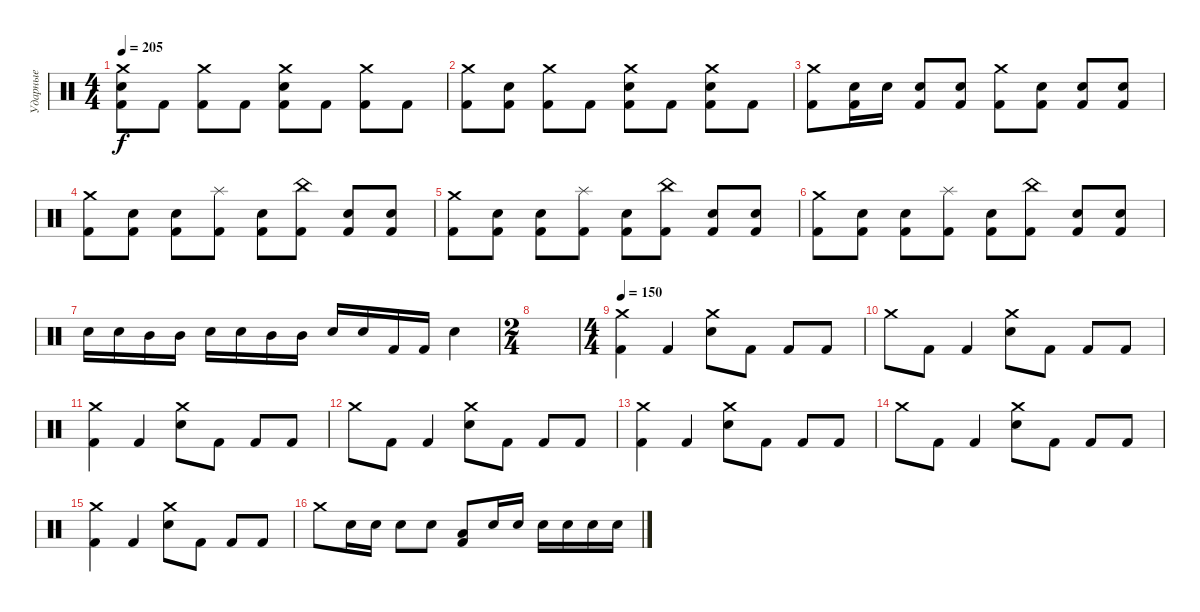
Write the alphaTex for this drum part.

\track ("Ударные" "Ударные") {instrument percussion}
\staff {score}
\articulation defaults
\ts (4 4)
\tempo 205
\clef neutral
\ks c
("Crash medium (hit)" "Electric Snare (hit)" "Kick (hit) 2").8{dy f} "Kick (hit) 2".8 ("Crash medium (hit)" "Kick (hit) 2").8 "Kick (hit) 2".8 ("Crash medium (hit)" "Electric Snare (hit)" "Kick (hit) 2").8 "Kick (hit) 2".8 ("Crash medium (hit)" "Kick (hit) 2").8 "Kick (hit) 2".8 |
("Crash medium (hit)" "Kick (hit) 2").8 ("Electric Snare (hit)" "Kick (hit) 2").8 ("Crash medium (hit)" "Kick (hit) 2").8 "Kick (hit) 2".8 ("Crash medium (hit)" "Electric Snare (hit)" "Kick (hit) 2").8 "Kick (hit) 2".8 ("Crash medium (hit)" "Electric Snare (hit)" "Kick (hit) 2").8 "Kick (hit) 2".8 |
("Crash medium (hit)" "Kick (hit) 2").8 ("Electric Snare (hit)" "Kick (hit) 2").16 "Electric Snare (hit)".16 ("Electric Snare (hit)" "Kick (hit) 2").8 ("Electric Snare (hit)" "Kick (hit) 2").8 ("Crash medium (hit)" "Kick (hit) 2").8 ("Electric Snare (hit)" "Kick (hit) 2").8 ("Electric Snare (hit)" "Kick (hit) 2").8 ("Electric Snare (hit)" "Kick (hit) 2").8 |
("Crash medium (hit)" "Kick (hit) 2").8 ("Electric Snare (hit)" "Kick (hit) 2").8 ("Electric Snare (hit)" "Kick (hit) 2").8 ("Splash (hit)" "Kick (hit) 2").8 ("Electric Snare (hit)" "Kick (hit) 2").8 ("China (hit)" "Kick (hit) 2").8 ("Electric Snare (hit)" "Kick (hit) 2").8 ("Electric Snare (hit)" "Kick (hit) 2").8 |
("Crash medium (hit)" "Kick (hit) 2").8 ("Electric Snare (hit)" "Kick (hit) 2").8 ("Electric Snare (hit)" "Kick (hit) 2").8 ("Splash (hit)" "Kick (hit) 2").8 ("Electric Snare (hit)" "Kick (hit) 2").8 ("China (hit)" "Kick (hit) 2").8 ("Electric Snare (hit)" "Kick (hit) 2").8 ("Electric Snare (hit)" "Kick (hit) 2").8 |
("Crash medium (hit)" "Kick (hit) 2").8 ("Electric Snare (hit)" "Kick (hit) 2").8 ("Electric Snare (hit)" "Kick (hit) 2").8 ("Splash (hit)" "Kick (hit) 2").8 ("Electric Snare (hit)" "Kick (hit) 2").8 ("China (hit)" "Kick (hit) 2").8 ("Electric Snare (hit)" "Kick (hit) 2").8 ("Electric Snare (hit)" "Kick (hit) 2").8 |
"Electric Snare (hit)".16 "Electric Snare (hit)".16 "Mid Tom (hit)".16 "Mid Tom (hit)".16 "Electric Snare (hit)".16 "Electric Snare (hit)".16 "Mid Tom (hit)".16 "Mid Tom (hit)".16 "Electric Snare (hit)".16 "Electric Snare (hit)".16 "Kick (hit) 2".16 "Kick (hit) 2".16 "Electric Snare (hit)".4 |
\ts (2 4)
|
\ts (4 4)
\tempo 150
("Crash medium (hit)" "Kick (hit) 2").4 "Kick (hit) 2".4 ("Crash medium (hit)" "Electric Snare (hit)").8 "Kick (hit) 2".8 "Kick (hit) 2".8 "Kick (hit) 2".8 |
"Crash medium (hit)".8 "Kick (hit) 2".8 "Kick (hit) 2".4 ("Crash medium (hit)" "Electric Snare (hit)").8 "Kick (hit) 2".8 "Kick (hit) 2".8 "Kick (hit) 2".8 |
("Crash medium (hit)" "Kick (hit) 2").4 "Kick (hit) 2".4 ("Crash medium (hit)" "Electric Snare (hit)").8 "Kick (hit) 2".8 "Kick (hit) 2".8 "Kick (hit) 2".8 |
"Crash medium (hit)".8 "Kick (hit) 2".8 "Kick (hit) 2".4 ("Crash medium (hit)" "Electric Snare (hit)").8 "Kick (hit) 2".8 "Kick (hit) 2".8 "Kick (hit) 2".8 |
("Crash medium (hit)" "Kick (hit) 2").4 "Kick (hit) 2".4 ("Crash medium (hit)" "Electric Snare (hit)").8 "Kick (hit) 2".8 "Kick (hit) 2".8 "Kick (hit) 2".8 |
"Crash medium (hit)".8 "Kick (hit) 2".8 "Kick (hit) 2".4 ("Crash medium (hit)" "Electric Snare (hit)").8 "Kick (hit) 2".8 "Kick (hit) 2".8 "Kick (hit) 2".8 |
("Crash medium (hit)" "Kick (hit) 2").4 "Kick (hit) 2".4 ("Crash medium (hit)" "Electric Snare (hit)").8 "Kick (hit) 2".8 "Kick (hit) 2".8 "Kick (hit) 2".8 |
"Crash medium (hit)".8 "Electric Snare (hit)".16 "Electric Snare (hit)".16 "Electric Snare (hit)".8 "Electric Snare (hit)".8 ("Low Tom (hit)" "Kick (hit) 2").8 "Electric Snare (hit)".16 "Electric Snare (hit)".16 "Electric Snare (hit)".16 "Electric Snare (hit)".16 "Electric Snare (hit)".16 "Electric Snare (hit)".16
